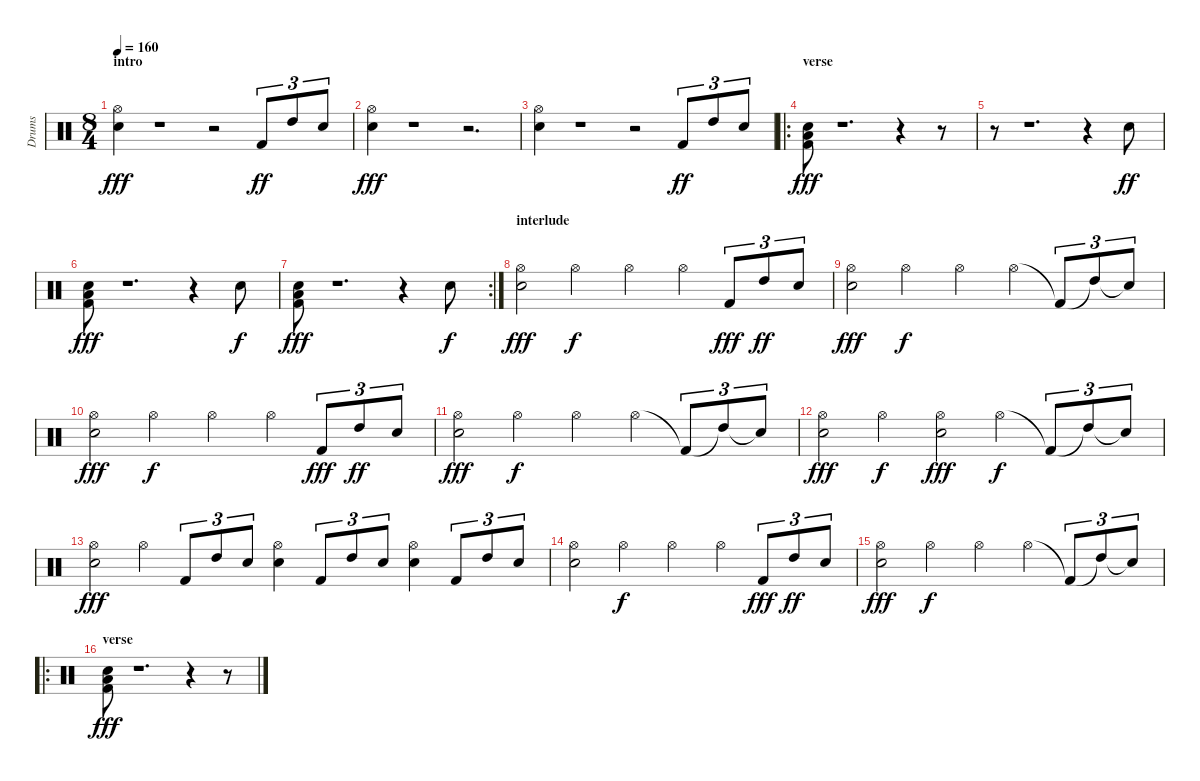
\track ("Drums" "Drums") {instrument percussion}
\staff {score}
\articulation defaults
\ts (8 4)
\section ("" "intro")
\tempo 160
\clef neutral
\ks c
("Electric Snare (hit)" "Hi-Hat (open)").4{dy fff} r.1 r.2 "Kick (hit) 2".8{tu (3 2) dy ff} "High Tom (hit)".8{tu (3 2)} "Electric Snare (hit)".8{tu (3 2)} |
("Electric Snare (hit)" "Hi-Hat (open)").4{dy fff} r.1 r.2{d} |
("Electric Snare (hit)" "Hi-Hat (open)").4 r.1 r.2 "Kick (hit) 2".8{tu (3 2) dy ff} "High Tom (hit)".8{tu (3 2)} "Electric Snare (hit)".8{tu (3 2)} |
\ro
\section ("" "verse")
("Electric Snare (hit)" "Kick (hit) 2" "Low Tom (hit)").8{dy fff} r.1{d} r.4 r.8 |
r.8 r.1{d} r.4 "Electric Snare (hit)".8{dy ff} |
("Electric Snare (hit)" "Kick (hit) 2" "Low Tom (hit)").8{dy fff} r.1{d} r.4 "Electric Snare (hit)".8{dy f} |
\rc 2
("Electric Snare (hit)" "Kick (hit) 2" "Low Tom (hit)").8{dy fff} r.1{d} r.4 "Electric Snare (hit)".8{dy f} |
\section ("" "interlude")
("Electric Snare (hit)" "Hi-Hat (open)").2{dy fff} "Hi-Hat (open)".2{dy f} "Hi-Hat (open)".2 "Hi-Hat (open)".4 "Kick (hit) 2".8{tu (3 2) dy fff} "High Tom (hit)".8{tu (3 2) dy ff} "Electric Snare (hit)".8{tu (3 2)} |
("Electric Snare (hit)" "Hi-Hat (open)").2{dy fff} "Hi-Hat (open)".2{dy f} "Hi-Hat (open)".2 "Hi-Hat (open)".4 "Kick (hit) 2"{t}.8{tu (3 2)} "High Tom (hit)"{t}.8{tu (3 2)} "Electric Snare (hit)"{t}.8{tu (3 2)} |
("Electric Snare (hit)" "Hi-Hat (open)").2{dy fff} "Hi-Hat (open)".2{dy f} "Hi-Hat (open)".2 "Hi-Hat (open)".4 "Kick (hit) 2".8{tu (3 2) dy fff} "High Tom (hit)".8{tu (3 2) dy ff} "Electric Snare (hit)".8{tu (3 2)} |
("Electric Snare (hit)" "Hi-Hat (open)").2{dy fff} "Hi-Hat (open)".2{dy f} "Hi-Hat (open)".2 "Hi-Hat (open)".4 "Kick (hit) 2"{t}.8{tu (3 2)} "High Tom (hit)"{t}.8{tu (3 2)} "Electric Snare (hit)"{t}.8{tu (3 2)} |
("Electric Snare (hit)" "Hi-Hat (open)").2{dy fff} "Hi-Hat (open)".2{dy f} ("Electric Snare (hit)" "Hi-Hat (open)").2{dy fff} "Hi-Hat (open)".4{dy f} "Kick (hit) 2"{t}.8{tu (3 2)} "High Tom (hit)"{t}.8{tu (3 2)} "Electric Snare (hit)"{t}.8{tu (3 2)} |
("Electric Snare (hit)" "Hi-Hat (open)").2{dy fff} "Hi-Hat (open)".4 "Kick (hit) 2".8{tu (3 2)} "High Tom (hit)".8{tu (3 2)} "Electric Snare (hit)".8{tu (3 2)} ("Electric Snare (hit)" "Hi-Hat (open)").4 "Kick (hit) 2".8{tu (3 2)} "High Tom (hit)".8{tu (3 2)} "Electric Snare (hit)".8{tu (3 2)} ("Electric Snare (hit)" "Hi-Hat (open)").4 "Kick (hit) 2".8{tu (3 2)} "High Tom (hit)".8{tu (3 2)} "Electric Snare (hit)".8{tu (3 2)} |
("Electric Snare (hit)" "Hi-Hat (open)").2 "Hi-Hat (open)".2{dy f} "Hi-Hat (open)".2 "Hi-Hat (open)".4 "Kick (hit) 2".8{tu (3 2) dy fff} "High Tom (hit)".8{tu (3 2) dy ff} "Electric Snare (hit)".8{tu (3 2)} |
("Electric Snare (hit)" "Hi-Hat (open)").2{dy fff} "Hi-Hat (open)".2{dy f} "Hi-Hat (open)".2 "Hi-Hat (open)".4 "Kick (hit) 2"{t}.8{tu (3 2)} "High Tom (hit)"{t}.8{tu (3 2)} "Electric Snare (hit)"{t}.8{tu (3 2)} |
\ro
\section ("" "verse")
("Electric Snare (hit)" "Kick (hit) 2" "Low Tom (hit)").8{dy fff} r.1{d} r.4 r.8
